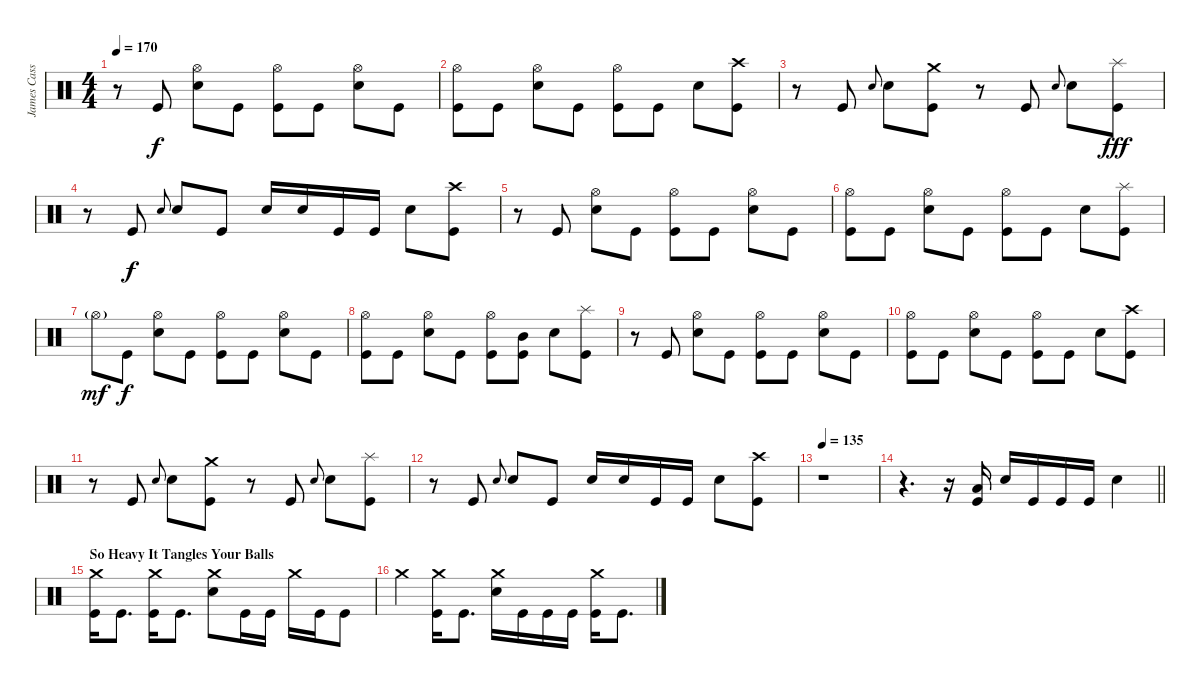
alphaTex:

\track ("James Cassells" "James Cass") {instrument percussion}
\staff {score}
\articulation defaults
\ts (4 4)
\tempo 170
\clef neutral
\ks c
r.8{dy fff} "Kick (hit)".8{dy f} ("Hi-Hat (open)" "Snare (hit) 2").8 "Kick (hit)".8 ("Hi-Hat (open)" "Kick (hit)").8 "Kick (hit)".8 ("Hi-Hat (open)" "Snare (hit) 2").8 "Kick (hit)".8 |
("Hi-Hat (open)" "Kick (hit)").8 "Kick (hit)".8 ("Hi-Hat (open)" "Snare (hit) 2").8 "Kick (hit)".8 ("Hi-Hat (open)" "Kick (hit)").8 "Kick (hit)".8 "Snare (hit) 2".8 ("Crash high (hit)" "Kick (hit)").8 |
r.8 "Kick (hit)".8 "Snare (hit) 2".8{gr onbeat} "Snare (hit) 2".8 ("Crash medium (hit)" "Kick (hit)").8 r.8 "Kick (hit)".8 "Snare (hit) 2".8{gr onbeat} "Snare (hit) 2".8 ("Splash (hit)" "Kick (hit)").8{dy fff} |
r.8 "Kick (hit)".8{dy f} "Snare (hit) 2".8{gr onbeat} "Snare (hit) 2".8 "Kick (hit)".8 "Snare (hit) 2".16 "Snare (hit) 2".16 "Kick (hit)".16 "Kick (hit)".16 "Snare (hit) 2".8 ("Crash high (hit)" "Kick (hit)").8 |
r.8 "Kick (hit)".8 ("Hi-Hat (open)" "Snare (hit) 2").8 "Kick (hit)".8 ("Hi-Hat (open)" "Kick (hit)").8 "Kick (hit)".8 ("Hi-Hat (open)" "Snare (hit) 2").8 "Kick (hit)".8 |
("Hi-Hat (open)" "Kick (hit)").8 "Kick (hit)".8 ("Hi-Hat (open)" "Snare (hit) 2").8 "Kick (hit)".8 ("Hi-Hat (open)" "Kick (hit)").8 "Kick (hit)".8 "Snare (hit) 2".8 ("Splash (hit)" "Kick (hit)").8 |
"Hi-Hat (open)"{g}.8{dy mf} "Kick (hit)".8{dy f} ("Hi-Hat (open)" "Snare (hit) 2").8 "Kick (hit)".8 ("Hi-Hat (open)" "Kick (hit)").8 "Kick (hit)".8 ("Hi-Hat (open)" "Snare (hit) 2").8 "Kick (hit)".8 |
("Hi-Hat (open)" "Kick (hit)").8 "Kick (hit)".8 ("Hi-Hat (open)" "Snare (hit) 2").8 "Kick (hit)".8 ("Hi-Hat (open)" "Kick (hit)").8 ("Mid Tom (hit)" "Kick (hit)").8 "Snare (hit) 2".8 ("Splash (hit)" "Kick (hit)").8 |
r.8 "Kick (hit)".8 ("Hi-Hat (open)" "Snare (hit) 2").8 "Kick (hit)".8 ("Hi-Hat (open)" "Kick (hit)").8 "Kick (hit)".8 ("Hi-Hat (open)" "Snare (hit) 2").8 "Kick (hit)".8 |
("Hi-Hat (open)" "Kick (hit)").8 "Kick (hit)".8 ("Hi-Hat (open)" "Snare (hit) 2").8 "Kick (hit)".8 ("Hi-Hat (open)" "Kick (hit)").8 "Kick (hit)".8 "Snare (hit) 2".8 ("Crash high (hit)" "Kick (hit)").8 |
r.8 "Kick (hit)".8 "Snare (hit) 2".8{gr onbeat} "Snare (hit) 2".8 ("Crash medium (hit)" "Kick (hit)").8 r.8 "Kick (hit)".8 "Snare (hit) 2".8{gr onbeat} "Snare (hit) 2".8 ("Splash (hit)" "Kick (hit)").8 |
r.8 "Kick (hit)".8 "Snare (hit) 2".8{gr onbeat} "Snare (hit) 2".8 "Kick (hit)".8 "Snare (hit) 2".16 "Snare (hit) 2".16 "Kick (hit)".16 "Kick (hit)".16 "Snare (hit) 2".8 ("Crash high (hit)" "Kick (hit)").8 |
\tempo 135
r.1 |
\barLineRight lightlight
r.4{d} r.16 ("Low Tom (hit)" "Kick (hit)").16 "Snare (hit) 2".16 "Kick (hit)".16 "Kick (hit)".16 "Kick (hit)".16 "Snare (hit) 2".4 |
\section ("" "So Heavy It Tangles Your Balls")
("Crash medium (hit)" "Kick (hit)").16 "Kick (hit)".8{d} ("Crash medium (hit)" "Kick (hit)").16 "Kick (hit)".8{d} ("Crash medium (hit)" "Snare (hit) 2").8 "Kick (hit)".16 "Kick (hit)".16 "Crash medium (hit)".16 "Kick (hit)".16 "Kick (hit)".8 |
"Crash medium (hit)".4 ("Crash medium (hit)" "Kick (hit)").16 "Kick (hit)".8{d} ("Crash medium (hit)" "Snare (hit) 2").16 "Kick (hit)".16 "Kick (hit)".16 "Kick (hit)".16 ("Crash medium (hit)" "Kick (hit)").16 "Kick (hit)".8{d}
